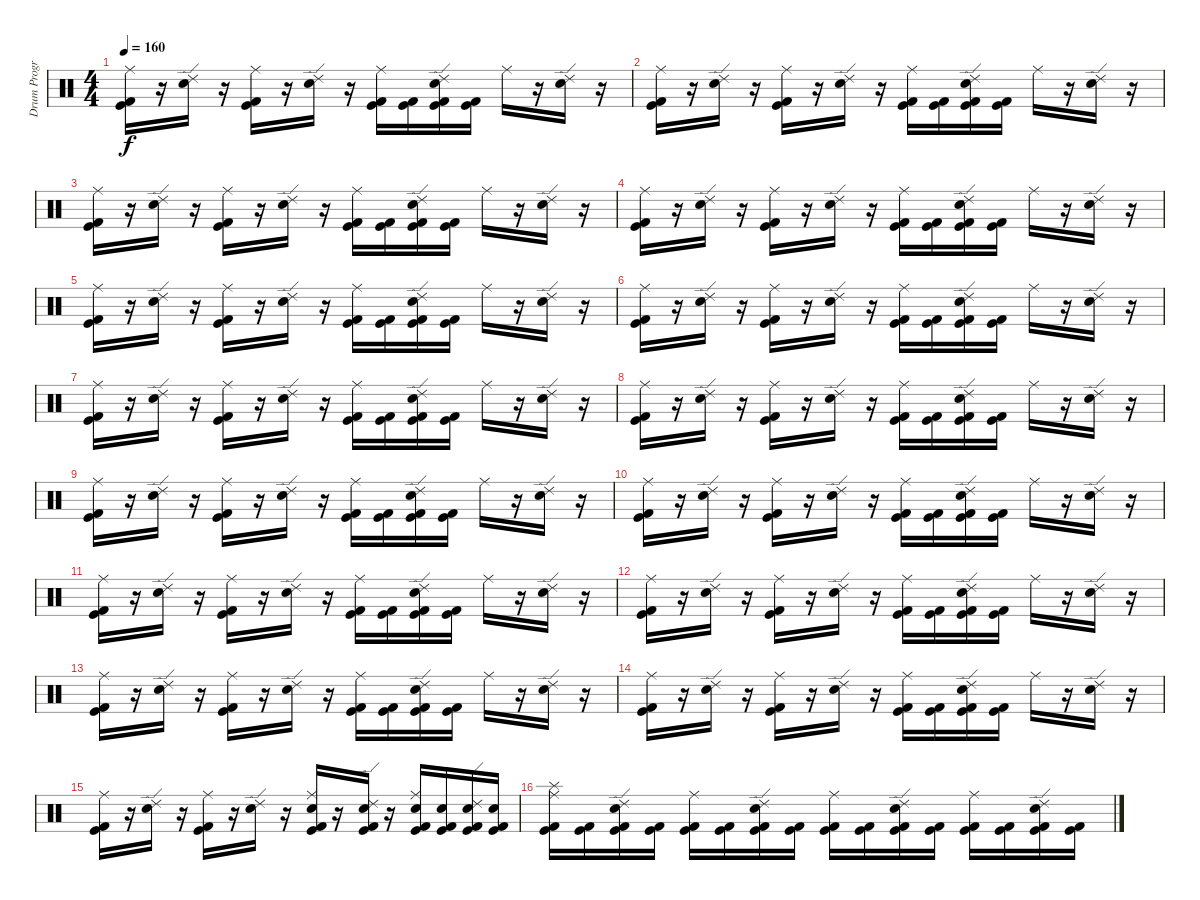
\track ("Drum Program - BG" "Drum Progr") {instrument percussion}
\staff {score}
\articulation defaults
\ts (4 4)
\tempo 160
\clef neutral
\ks c
("Kick (hit) 2" "Kick (hit)" "Ride (middle)").16{dy f} r.16 ("Electric Snare (hit)" "Ride (edge) 2").16 r.16 ("Kick (hit)" "Kick (hit) 2" "Ride (middle)").16 r.16 ("Electric Snare (hit)" "Ride (edge) 2").16 r.16 ("Kick (hit)" "Kick (hit) 2" "Ride (middle)").16 ("Kick (hit)" "Kick (hit) 2").16 ("Kick (hit)" "Kick (hit) 2" "Electric Snare (hit)" "Ride (edge) 2").16 ("Kick (hit)" "Kick (hit) 2").16 "Ride (middle)".16 r.16 ("Electric Snare (hit)" "Ride (edge) 2").16 r.16 |
("Kick (hit) 2" "Kick (hit)" "Ride (middle)").16 r.16 ("Electric Snare (hit)" "Ride (edge) 2").16 r.16 ("Kick (hit)" "Kick (hit) 2" "Ride (middle)").16 r.16 ("Electric Snare (hit)" "Ride (edge) 2").16 r.16 ("Kick (hit)" "Kick (hit) 2" "Ride (middle)").16 ("Kick (hit)" "Kick (hit) 2").16 ("Kick (hit)" "Kick (hit) 2" "Electric Snare (hit)" "Ride (edge) 2").16 ("Kick (hit)" "Kick (hit) 2").16 "Ride (middle)".16 r.16 ("Electric Snare (hit)" "Ride (edge) 2").16 r.16 |
("Kick (hit) 2" "Kick (hit)" "Ride (middle)").16 r.16 ("Electric Snare (hit)" "Ride (edge) 2").16 r.16 ("Kick (hit)" "Kick (hit) 2" "Ride (middle)").16 r.16 ("Electric Snare (hit)" "Ride (edge) 2").16 r.16 ("Kick (hit)" "Kick (hit) 2" "Ride (middle)").16 ("Kick (hit)" "Kick (hit) 2").16 ("Kick (hit)" "Kick (hit) 2" "Electric Snare (hit)" "Ride (edge) 2").16 ("Kick (hit)" "Kick (hit) 2").16 "Ride (middle)".16 r.16 ("Electric Snare (hit)" "Ride (edge) 2").16 r.16 |
("Kick (hit) 2" "Kick (hit)" "Ride (middle)").16 r.16 ("Electric Snare (hit)" "Ride (edge) 2").16 r.16 ("Kick (hit)" "Kick (hit) 2" "Ride (middle)").16 r.16 ("Electric Snare (hit)" "Ride (edge) 2").16 r.16 ("Kick (hit)" "Kick (hit) 2" "Ride (middle)").16 ("Kick (hit)" "Kick (hit) 2").16 ("Kick (hit)" "Kick (hit) 2" "Electric Snare (hit)" "Ride (edge) 2").16 ("Kick (hit)" "Kick (hit) 2").16 "Ride (middle)".16 r.16 ("Electric Snare (hit)" "Ride (edge) 2").16 r.16 |
("Kick (hit) 2" "Kick (hit)" "Ride (middle)").16 r.16 ("Electric Snare (hit)" "Ride (edge) 2").16 r.16 ("Kick (hit)" "Kick (hit) 2" "Ride (middle)").16 r.16 ("Electric Snare (hit)" "Ride (edge) 2").16 r.16 ("Kick (hit)" "Kick (hit) 2" "Ride (middle)").16 ("Kick (hit)" "Kick (hit) 2").16 ("Kick (hit)" "Kick (hit) 2" "Electric Snare (hit)" "Ride (edge) 2").16 ("Kick (hit)" "Kick (hit) 2").16 "Ride (middle)".16 r.16 ("Electric Snare (hit)" "Ride (edge) 2").16 r.16 |
("Kick (hit) 2" "Kick (hit)" "Ride (middle)").16 r.16 ("Electric Snare (hit)" "Ride (edge) 2").16 r.16 ("Kick (hit)" "Kick (hit) 2" "Ride (middle)").16 r.16 ("Electric Snare (hit)" "Ride (edge) 2").16 r.16 ("Kick (hit)" "Kick (hit) 2" "Ride (middle)").16 ("Kick (hit)" "Kick (hit) 2").16 ("Kick (hit)" "Kick (hit) 2" "Electric Snare (hit)" "Ride (edge) 2").16 ("Kick (hit)" "Kick (hit) 2").16 "Ride (middle)".16 r.16 ("Electric Snare (hit)" "Ride (edge) 2").16 r.16 |
("Kick (hit) 2" "Kick (hit)" "Ride (middle)").16 r.16 ("Electric Snare (hit)" "Ride (edge) 2").16 r.16 ("Kick (hit)" "Kick (hit) 2" "Ride (middle)").16 r.16 ("Electric Snare (hit)" "Ride (edge) 2").16 r.16 ("Kick (hit)" "Kick (hit) 2" "Ride (middle)").16 ("Kick (hit)" "Kick (hit) 2").16 ("Kick (hit)" "Kick (hit) 2" "Electric Snare (hit)" "Ride (edge) 2").16 ("Kick (hit)" "Kick (hit) 2").16 "Ride (middle)".16 r.16 ("Electric Snare (hit)" "Ride (edge) 2").16 r.16 |
("Kick (hit) 2" "Kick (hit)" "Ride (middle)").16 r.16 ("Electric Snare (hit)" "Ride (edge) 2").16 r.16 ("Kick (hit)" "Kick (hit) 2" "Ride (middle)").16 r.16 ("Electric Snare (hit)" "Ride (edge) 2").16 r.16 ("Kick (hit)" "Kick (hit) 2" "Ride (middle)").16 ("Kick (hit)" "Kick (hit) 2").16 ("Kick (hit)" "Kick (hit) 2" "Electric Snare (hit)" "Ride (edge) 2").16 ("Kick (hit)" "Kick (hit) 2").16 "Ride (middle)".16 r.16 ("Electric Snare (hit)" "Ride (edge) 2").16 r.16 |
("Kick (hit) 2" "Kick (hit)" "Ride (middle)").16 r.16 ("Electric Snare (hit)" "Ride (edge) 2").16 r.16 ("Kick (hit)" "Kick (hit) 2" "Ride (middle)").16 r.16 ("Electric Snare (hit)" "Ride (edge) 2").16 r.16 ("Kick (hit)" "Kick (hit) 2" "Ride (middle)").16 ("Kick (hit)" "Kick (hit) 2").16 ("Kick (hit)" "Kick (hit) 2" "Electric Snare (hit)" "Ride (edge) 2").16 ("Kick (hit)" "Kick (hit) 2").16 "Ride (middle)".16 r.16 ("Electric Snare (hit)" "Ride (edge) 2").16 r.16 |
("Kick (hit) 2" "Kick (hit)" "Ride (middle)").16 r.16 ("Electric Snare (hit)" "Ride (edge) 2").16 r.16 ("Kick (hit)" "Kick (hit) 2" "Ride (middle)").16 r.16 ("Electric Snare (hit)" "Ride (edge) 2").16 r.16 ("Kick (hit)" "Kick (hit) 2" "Ride (middle)").16 ("Kick (hit)" "Kick (hit) 2").16 ("Kick (hit)" "Kick (hit) 2" "Electric Snare (hit)" "Ride (edge) 2").16 ("Kick (hit)" "Kick (hit) 2").16 "Ride (middle)".16 r.16 ("Electric Snare (hit)" "Ride (edge) 2").16 r.16 |
("Kick (hit) 2" "Kick (hit)" "Ride (middle)").16 r.16 ("Electric Snare (hit)" "Ride (edge) 2").16 r.16 ("Kick (hit)" "Kick (hit) 2" "Ride (middle)").16 r.16 ("Electric Snare (hit)" "Ride (edge) 2").16 r.16 ("Kick (hit)" "Kick (hit) 2" "Ride (middle)").16 ("Kick (hit)" "Kick (hit) 2").16 ("Kick (hit)" "Kick (hit) 2" "Electric Snare (hit)" "Ride (edge) 2").16 ("Kick (hit)" "Kick (hit) 2").16 "Ride (middle)".16 r.16 ("Electric Snare (hit)" "Ride (edge) 2").16 r.16 |
("Kick (hit) 2" "Kick (hit)" "Ride (middle)").16 r.16 ("Electric Snare (hit)" "Ride (edge) 2").16 r.16 ("Kick (hit)" "Kick (hit) 2" "Ride (middle)").16 r.16 ("Electric Snare (hit)" "Ride (edge) 2").16 r.16 ("Kick (hit)" "Kick (hit) 2" "Ride (middle)").16 ("Kick (hit)" "Kick (hit) 2").16 ("Kick (hit)" "Kick (hit) 2" "Electric Snare (hit)" "Ride (edge) 2").16 ("Kick (hit)" "Kick (hit) 2").16 "Ride (middle)".16 r.16 ("Electric Snare (hit)" "Ride (edge) 2").16 r.16 |
("Kick (hit) 2" "Kick (hit)" "Ride (middle)").16 r.16 ("Electric Snare (hit)" "Ride (edge) 2").16 r.16 ("Kick (hit)" "Kick (hit) 2" "Ride (middle)").16 r.16 ("Electric Snare (hit)" "Ride (edge) 2").16 r.16 ("Kick (hit)" "Kick (hit) 2" "Ride (middle)").16 ("Kick (hit)" "Kick (hit) 2").16 ("Kick (hit)" "Kick (hit) 2" "Electric Snare (hit)" "Ride (edge) 2").16 ("Kick (hit)" "Kick (hit) 2").16 "Ride (middle)".16 r.16 ("Electric Snare (hit)" "Ride (edge) 2").16 r.16 |
("Kick (hit) 2" "Kick (hit)" "Ride (middle)").16 r.16 ("Electric Snare (hit)" "Ride (edge) 2").16 r.16 ("Kick (hit)" "Kick (hit) 2" "Ride (middle)").16 r.16 ("Electric Snare (hit)" "Ride (edge) 2").16 r.16 ("Kick (hit)" "Kick (hit) 2" "Ride (middle)").16 ("Kick (hit)" "Kick (hit) 2").16 ("Kick (hit)" "Kick (hit) 2" "Electric Snare (hit)" "Ride (edge) 2").16 ("Kick (hit)" "Kick (hit) 2").16 "Ride (middle)".16 r.16 ("Electric Snare (hit)" "Ride (edge) 2").16 r.16 |
("Kick (hit)" "Kick (hit) 2" "Ride (middle)").16 r.16 ("Electric Snare (hit)" "Ride (edge) 2").16 r.16 ("Kick (hit)" "Kick (hit) 2" "Ride (middle)").16 r.16 ("Electric Snare (hit)" "Ride (edge) 2").16 r.16 ("Kick (hit)" "Kick (hit) 2" "Electric Snare (hit)" "Ride (middle)").16 r.16 ("Kick (hit)" "Kick (hit) 2" "Electric Snare (hit)" "Ride (edge) 2").16 r.16 ("Kick (hit)" "Kick (hit) 2" "Electric Snare (hit)" "Ride (middle)").16 ("Kick (hit)" "Kick (hit) 2" "Electric Snare (hit)").16 ("Kick (hit)" "Kick (hit) 2" "Electric Snare (hit)" "Ride (edge) 2").16 ("Kick (hit)" "Kick (hit) 2" "Electric Snare (hit)").16 |
("Kick (hit)" "Kick (hit) 2" "Splash (hit)" "Ride (middle)").16 ("Kick (hit)" "Kick (hit) 2").16 ("Kick (hit)" "Kick (hit) 2" "Electric Snare (hit)" "Ride (edge) 2").16 ("Kick (hit)" "Kick (hit) 2").16 ("Kick (hit)" "Kick (hit) 2" "Ride (middle)").16 ("Kick (hit)" "Kick (hit) 2").16 ("Kick (hit)" "Kick (hit) 2" "Electric Snare (hit)" "Ride (edge) 2").16 ("Kick (hit)" "Kick (hit) 2").16 ("Kick (hit)" "Kick (hit) 2" "Ride (middle)").16 ("Kick (hit)" "Kick (hit) 2").16 ("Kick (hit)" "Kick (hit) 2" "Electric Snare (hit)" "Ride (edge) 2").16 ("Kick (hit)" "Kick (hit) 2").16 ("Kick (hit)" "Kick (hit) 2" "Ride (middle)").16 ("Kick (hit)" "Kick (hit) 2").16 ("Kick (hit)" "Kick (hit) 2" "Electric Snare (hit)" "Ride (edge) 2").16 ("Kick (hit)" "Kick (hit) 2").16
